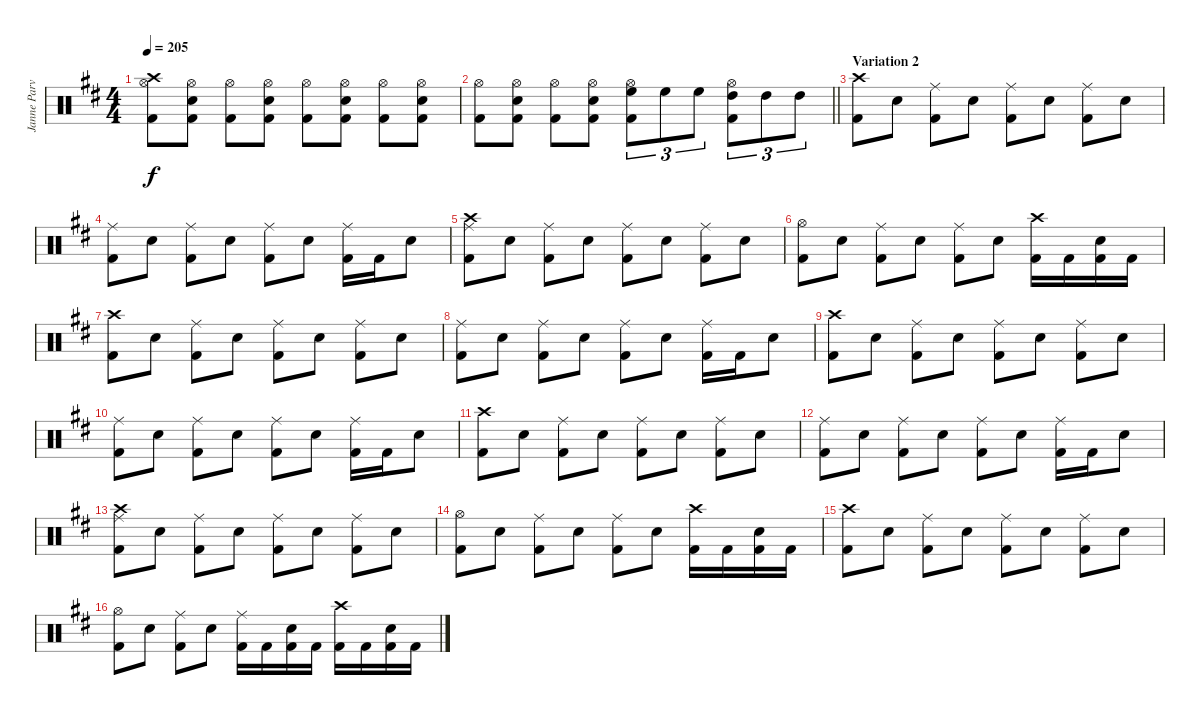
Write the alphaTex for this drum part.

\track ("Janne Parviainen" "Janne Parv") {instrument percussion}
\staff {score}
\articulation defaults
\ts (4 4)
\tempo 205
\clef neutral
\ks bminor
("Crash high (hit)" "Hi-Hat (open)" "Kick (hit) 2").8{dy f} ("Hi-Hat (open)" "Snare (hit) 2" "Kick (hit) 2").8 ("Hi-Hat (open)" "Kick (hit) 2").8 ("Hi-Hat (open)" "Snare (hit) 2" "Kick (hit) 2").8 ("Hi-Hat (open)" "Kick (hit) 2").8 ("Hi-Hat (open)" "Snare (hit) 2" "Kick (hit) 2").8 ("Hi-Hat (open)" "Kick (hit) 2").8 ("Hi-Hat (open)" "Snare (hit) 2" "Kick (hit) 2").8 |
\barLineRight lightlight
("Hi-Hat (open)" "Kick (hit) 2").8 ("Hi-Hat (open)" "Snare (hit) 2" "Kick (hit) 2").8 ("Hi-Hat (open)" "Kick (hit) 2").8 ("Hi-Hat (open)" "Snare (hit) 2" "Kick (hit) 2").8 ("High Floor Tom (hit)" "Hi-Hat (open)" "Kick (hit) 2").8{tu (3 2)} "High Floor Tom (hit)".8{tu (3 2)} "High Floor Tom (hit)".8{tu (3 2)} ("High Tom (hit)" "Hi-Hat (open)" "Kick (hit) 2").8{tu (3 2)} "High Tom (hit)".8{tu (3 2)} "High Tom (hit)".8{tu (3 2)} |
\section ("" "Variation 2")
("Crash high (hit)" "Kick (hit) 2").8 "Electric Snare (hit)".8 ("Ride (middle)" "Kick (hit) 2").8 "Electric Snare (hit)".8 ("Ride (middle)" "Kick (hit) 2").8 "Electric Snare (hit)".8 ("Ride (middle)" "Kick (hit) 2").8 "Electric Snare (hit)".8 |
("Ride (middle)" "Kick (hit) 2").8 "Electric Snare (hit)".8 ("Ride (middle)" "Kick (hit) 2").8 "Electric Snare (hit)".8 ("Ride (middle)" "Kick (hit) 2").8 "Electric Snare (hit)".8 ("Ride (middle)" "Kick (hit) 2").16 "Kick (hit) 2".16 "Electric Snare (hit)".8 |
("Crash high (hit)" "Ride (middle)" "Kick (hit) 2").8 "Electric Snare (hit)".8 ("Ride (middle)" "Kick (hit) 2").8 "Electric Snare (hit)".8 ("Ride (middle)" "Kick (hit) 2").8 "Electric Snare (hit)".8 ("Ride (middle)" "Kick (hit) 2").8 "Electric Snare (hit)".8 |
("Hi-Hat (open)" "Kick (hit) 2").8 "Electric Snare (hit)".8 ("Ride (middle)" "Kick (hit) 2").8 "Electric Snare (hit)".8 ("Ride (middle)" "Kick (hit) 2").8 "Electric Snare (hit)".8 ("Crash high (hit)" "Kick (hit) 2").16 "Kick (hit) 2".16 ("Electric Snare (hit)" "Kick (hit) 2").16 "Kick (hit) 2".16 |
("Crash high (hit)" "Kick (hit) 2").8 "Electric Snare (hit)".8 ("Ride (middle)" "Kick (hit) 2").8 "Electric Snare (hit)".8 ("Ride (middle)" "Kick (hit) 2").8 "Electric Snare (hit)".8 ("Ride (middle)" "Kick (hit) 2").8 "Electric Snare (hit)".8 |
("Ride (middle)" "Kick (hit) 2").8 "Electric Snare (hit)".8 ("Ride (middle)" "Kick (hit) 2").8 "Electric Snare (hit)".8 ("Ride (middle)" "Kick (hit) 2").8 "Electric Snare (hit)".8 ("Ride (middle)" "Kick (hit) 2").16 "Kick (hit) 2".16 "Electric Snare (hit)".8 |
("Crash high (hit)" "Kick (hit) 2").8 "Electric Snare (hit)".8 ("Ride (middle)" "Kick (hit) 2").8 "Electric Snare (hit)".8 ("Ride (middle)" "Kick (hit) 2").8 "Electric Snare (hit)".8 ("Ride (middle)" "Kick (hit) 2").8 "Electric Snare (hit)".8 |
("Ride (middle)" "Kick (hit) 2").8 "Electric Snare (hit)".8 ("Ride (middle)" "Kick (hit) 2").8 "Electric Snare (hit)".8 ("Ride (middle)" "Kick (hit) 2").8 "Electric Snare (hit)".8 ("Ride (middle)" "Kick (hit) 2").16 "Kick (hit) 2".16 "Electric Snare (hit)".8 |
("Crash high (hit)" "Kick (hit) 2").8 "Electric Snare (hit)".8 ("Ride (middle)" "Kick (hit) 2").8 "Electric Snare (hit)".8 ("Ride (middle)" "Kick (hit) 2").8 "Electric Snare (hit)".8 ("Ride (middle)" "Kick (hit) 2").8 "Electric Snare (hit)".8 |
("Ride (middle)" "Kick (hit) 2").8 "Electric Snare (hit)".8 ("Ride (middle)" "Kick (hit) 2").8 "Electric Snare (hit)".8 ("Ride (middle)" "Kick (hit) 2").8 "Electric Snare (hit)".8 ("Ride (middle)" "Kick (hit) 2").16 "Kick (hit) 2".16 "Electric Snare (hit)".8 |
("Crash high (hit)" "Ride (middle)" "Kick (hit) 2").8 "Electric Snare (hit)".8 ("Ride (middle)" "Kick (hit) 2").8 "Electric Snare (hit)".8 ("Ride (middle)" "Kick (hit) 2").8 "Electric Snare (hit)".8 ("Ride (middle)" "Kick (hit) 2").8 "Electric Snare (hit)".8 |
("Hi-Hat (open)" "Kick (hit) 2").8 "Electric Snare (hit)".8 ("Ride (middle)" "Kick (hit) 2").8 "Electric Snare (hit)".8 ("Ride (middle)" "Kick (hit) 2").8 "Electric Snare (hit)".8 ("Crash high (hit)" "Kick (hit) 2").16 "Kick (hit) 2".16 ("Electric Snare (hit)" "Kick (hit) 2").16 "Kick (hit) 2".16 |
("Crash high (hit)" "Kick (hit) 2").8 "Electric Snare (hit)".8 ("Ride (middle)" "Kick (hit) 2").8 "Electric Snare (hit)".8 ("Ride (middle)" "Kick (hit) 2").8 "Electric Snare (hit)".8 ("Ride (middle)" "Kick (hit) 2").8 "Electric Snare (hit)".8 |
("Hi-Hat (open)" "Kick (hit) 2").8 "Electric Snare (hit)".8 ("Ride (middle)" "Kick (hit) 2").8 "Electric Snare (hit)".8 ("Ride (middle)" "Kick (hit) 2").16 "Kick (hit) 2".16 ("Electric Snare (hit)" "Kick (hit) 2").16 "Kick (hit) 2".16 ("Crash high (hit)" "Kick (hit) 2").16 "Kick (hit) 2".16 ("Electric Snare (hit)" "Kick (hit) 2").16 "Kick (hit) 2".16
